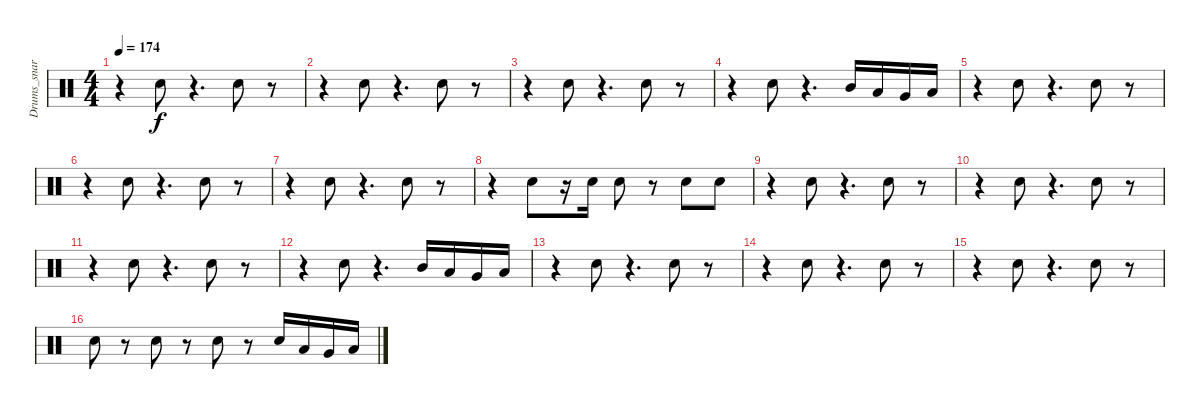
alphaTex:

\track ("Drums_snare&tom" "Drums_snar") {instrument percussion}
\staff {score}
\articulation defaults
\ts (4 4)
\tempo 174
\clef neutral
\ks c
r.4{dy f} "Electric Snare (hit)".8 r.4{d} "Electric Snare (hit)".8 r.8 |
r.4 "Electric Snare (hit)".8 r.4{d} "Electric Snare (hit)".8 r.8 |
r.4 "Electric Snare (hit)".8 r.4{d} "Electric Snare (hit)".8 r.8 |
r.4 "Electric Snare (hit)".8 r.4{d} "Mid Tom (hit)".16 "Low Tom (hit)".16 "Very Low Tom (hit)".16 "Low Floor Tom (hit)".16 |
r.4 "Electric Snare (hit)".8 r.4{d} "Electric Snare (hit)".8 r.8 |
r.4 "Electric Snare (hit)".8 r.4{d} "Electric Snare (hit)".8 r.8 |
r.4 "Electric Snare (hit)".8 r.4{d} "Electric Snare (hit)".8 r.8 |
r.4 "Electric Snare (hit)".8 r.16 "Electric Snare (hit)".16 "Electric Snare (hit)".8 r.8 "Electric Snare (hit)".8 "Electric Snare (hit)".8 |
r.4 "Electric Snare (hit)".8 r.4{d} "Electric Snare (hit)".8 r.8 |
r.4 "Electric Snare (hit)".8 r.4{d} "Electric Snare (hit)".8 r.8 |
r.4 "Electric Snare (hit)".8 r.4{d} "Electric Snare (hit)".8 r.8 |
r.4 "Electric Snare (hit)".8 r.4{d} "Mid Tom (hit)".16 "Low Tom (hit)".16 "Very Low Tom (hit)".16 "Low Floor Tom (hit)".16 |
r.4 "Electric Snare (hit)".8 r.4{d} "Electric Snare (hit)".8 r.8 |
r.4 "Electric Snare (hit)".8 r.4{d} "Electric Snare (hit)".8 r.8 |
r.4 "Electric Snare (hit)".8 r.4{d} "Electric Snare (hit)".8 r.8 |
"Electric Snare (hit)".8 r.8 "Electric Snare (hit)".8 r.8 "Electric Snare (hit)".8 r.8 "Electric Snare (hit)".16 "Low Tom (hit)".16 "Very Low Tom (hit)".16 "Low Floor Tom (hit)".16
